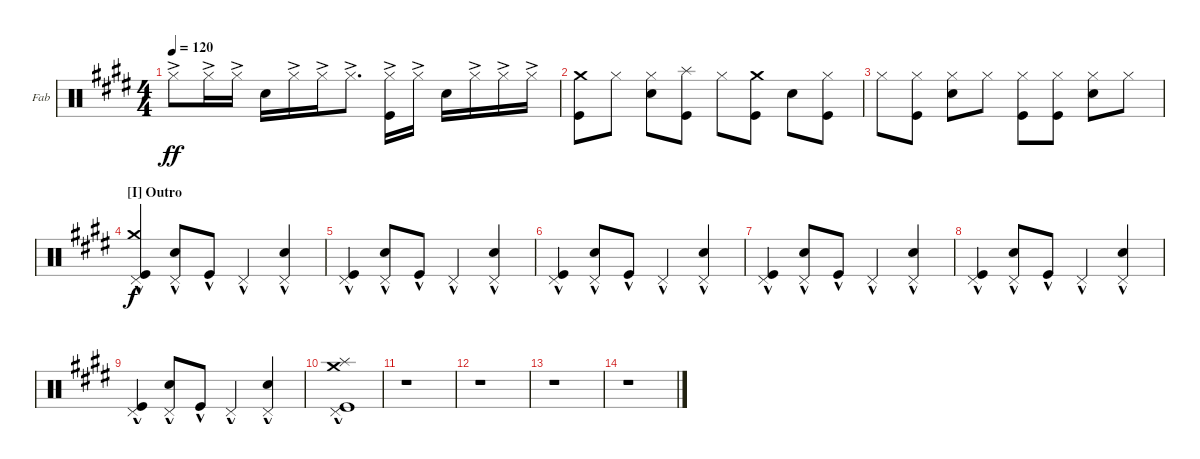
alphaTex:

\bracketExtendMode groupsimilarinstruments
\firstSystemTrackNameOrientation horizontal
\otherSystemsTrackNameOrientation horizontal
\track ("Drums" "Fab") {instrument percussion}
\staff {score}
\articulation defaults
\ts (4 4)
\tempo 120
\clef neutral
\scale
0.551674
\ks e "Hi-Hat (closed)"{ac}.8{dy ff} "Hi-Hat (closed)"{ac}.16 "Hi-Hat (closed)"{ac}.16 "Snare (hit) 2".16 "Hi-Hat (closed)"{ac}.16 "Hi-Hat (closed)"{ac}.16 "Hi-Hat (closed)"{ac}.8{d}
("Hi-Hat (closed)"{ac} "Kick (hit)").16 "Hi-Hat (closed)"{ac}.16 "Snare (hit) 2".16 "Hi-Hat (closed)"{ac}.16 "Hi-Hat (closed)"{ac}.16 "Hi-Hat (closed)"{ac}.16 |
\scale
0.448106 ("Crash medium (hit)" "Kick (hit)").8 "Hi-Hat (closed)".8 ("Hi-Hat (closed)" "Snare (hit) 2").8 ("Kick (hit)" "Splash (hit)").8 "Hi-Hat (closed)".8 ("Kick (hit)" "Crash medium (hit)").8 "Snare (hit) 2".8 ("Kick (hit)" "Hi-Hat (closed)").8 |
\scale
0.552083 "Hi-Hat (closed)".8 ("Hi-Hat (closed)" "Kick (hit)").8 ("Hi-Hat (closed)" "Snare (hit) 2").8 "Hi-Hat (closed)".8 ("Hi-Hat (closed)" "Kick (hit)").8 ("Hi-Hat (closed)" "Kick (hit)").8 ("Hi-Hat (closed)" "Snare (hit) 2").8 "Hi-Hat (closed)".8 |
\section ("I" "Outro")
\scale
0.447601 ("Pedal Hi-Hat (hit)"{hac} "Kick (hit)"{hac} "Crash medium (hit)").4{dy f} ("Snare (hit) 2" "Pedal Hi-Hat (hit)"{hac}).8 "Kick (hit)"{hac}.8 "Pedal Hi-Hat (hit)"{hac}.4 ("Snare (hit) 2" "Pedal Hi-Hat (hit)"{hac}).4 |
\scale
0.550158 ("Pedal Hi-Hat (hit)"{hac} "Kick (hit)"{hac}).4 ("Snare (hit) 2" "Pedal Hi-Hat (hit)"{hac}).8 "Kick (hit)"{hac}.8 "Pedal Hi-Hat (hit)"{hac}.4 ("Snare (hit) 2" "Pedal Hi-Hat (hit)"{hac}).4 |
\scale
0.449779 ("Pedal Hi-Hat (hit)"{hac} "Kick (hit)"{hac}).4 ("Snare (hit) 2" "Pedal Hi-Hat (hit)"{hac}).8 "Kick (hit)"{hac}.8 "Pedal Hi-Hat (hit)"{hac}.4 ("Snare (hit) 2" "Pedal Hi-Hat (hit)"{hac}).4 |
\scale
0.55154 ("Pedal Hi-Hat (hit)"{hac} "Kick (hit)"{hac}).4 ("Snare (hit) 2" "Pedal Hi-Hat (hit)"{hac}).8 "Kick (hit)"{hac}.8 "Pedal Hi-Hat (hit)"{hac}.4 ("Snare (hit) 2" "Pedal Hi-Hat (hit)"{hac}).4 |
\scale
0.4484 ("Pedal Hi-Hat (hit)"{hac} "Kick (hit)"{hac}).4 ("Snare (hit) 2" "Pedal Hi-Hat (hit)"{hac}).8 "Kick (hit)"{hac}.8 "Pedal Hi-Hat (hit)"{hac}.4 ("Snare (hit) 2" "Pedal Hi-Hat (hit)"{hac}).4 |
\scale
0.553901 ("Pedal Hi-Hat (hit)"{hac} "Kick (hit)"{hac}).4 ("Snare (hit) 2" "Pedal Hi-Hat (hit)"{hac}).8 "Kick (hit)"{hac}.8 "Pedal Hi-Hat (hit)"{hac}.4 ("Snare (hit) 2" "Pedal Hi-Hat (hit)"{hac}).4 |
\scale
0.446048 ("Splash (hit)" "Crash medium (hit)" "Kick (hit)" "Pedal Hi-Hat (hit)"{hac}).1 |
r.1 |
r.1 |
r.1 |
r.1
